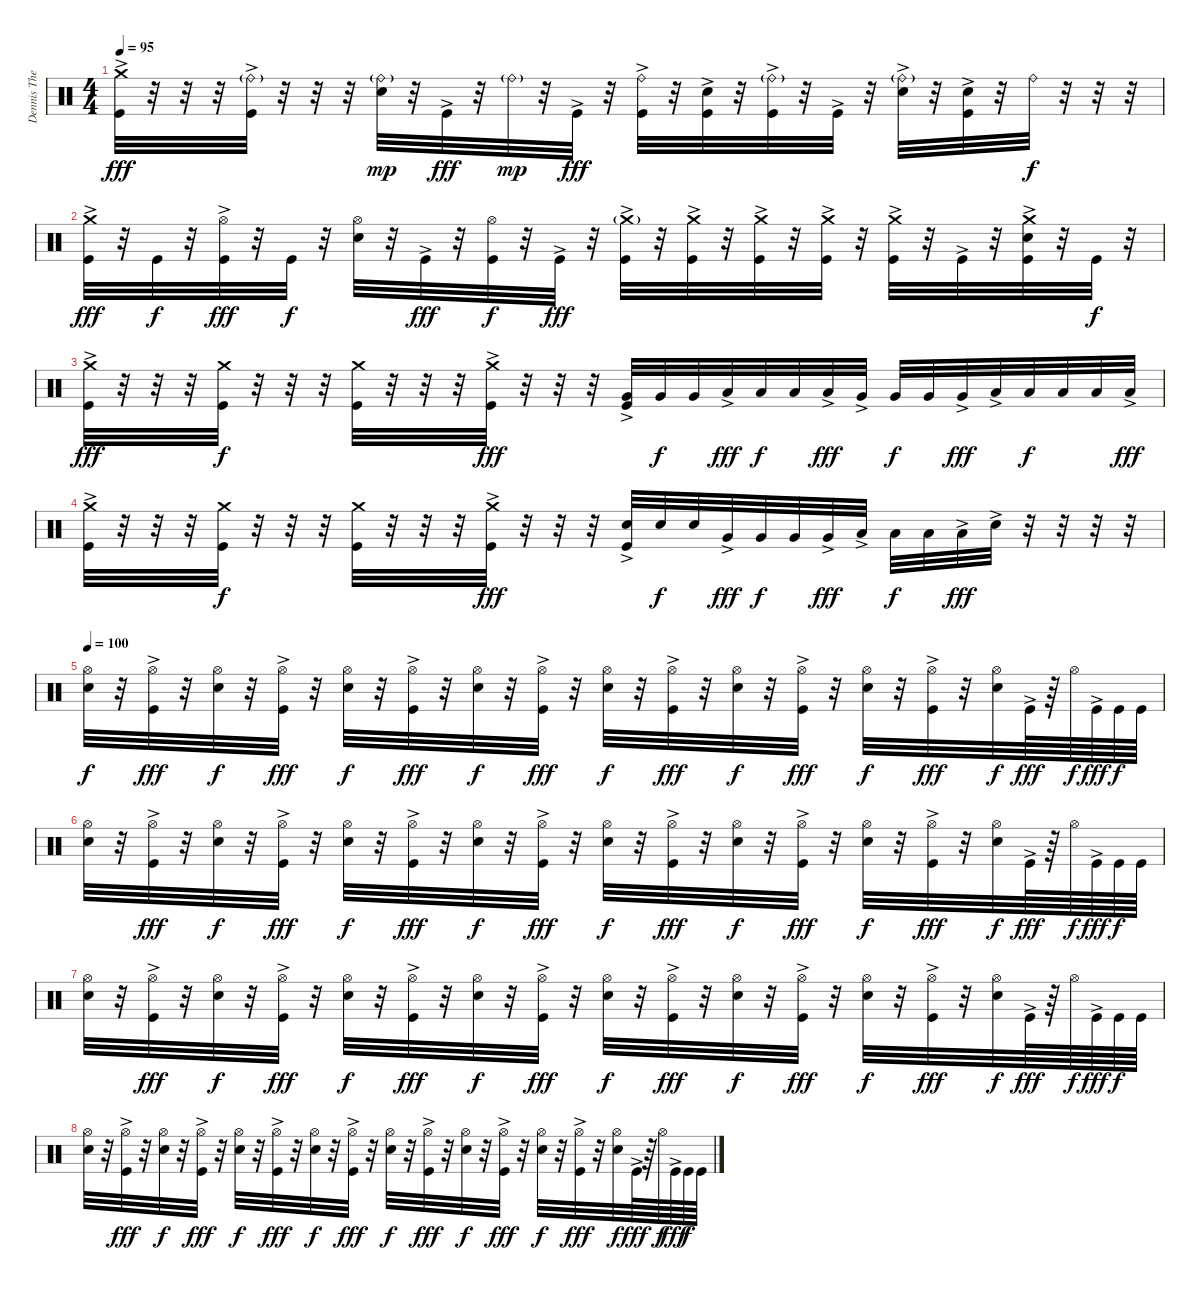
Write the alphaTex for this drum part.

\track ("Dennis The Menace" "Dennis The") {instrument percussion}
\staff {score}
\articulation defaults
\ts (4 4)
\tempo 95
\clef neutral
\ks c
("Crash medium (hit)" "Kick (hit)"{ac}).32{dy fff} r.32 r.32 r.32 ("Ride (bell)"{g} "Kick (hit)"{ac}).32 r.32 r.32 r.32 ("Ride (bell)"{g} "Electric Snare (hit)").32{dy mp} r.32 "Kick (hit)"{ac}.32{dy fff} r.32 "Ride (bell)"{g}.32{dy mp} r.32 "Kick (hit)"{ac}.32{dy fff} r.32 ("Ride (bell)" "Kick (hit)"{ac}).32 r.32 ("Electric Snare (hit)"{ac} "Kick (hit)"{ac}).32 r.32 ("Ride (bell)"{g} "Kick (hit)"{ac}).32 r.32 "Kick (hit)"{ac}.32 r.32 ("Ride (bell)"{g} "Electric Snare (hit)"{ac}).32 r.32 ("Electric Snare (hit)" "Kick (hit)"{ac}).32 r.32 "Ride (bell)".32{dy f} r.32 r.32 r.32 |
("Crash medium (hit)" "Kick (hit)"{ac}).32{dy fff} r.32 "Kick (hit)".32{dy f} r.32 ("Hi-Hat (open)" "Kick (hit)"{ac}).32{dy fff} r.32 "Kick (hit)".32{dy f} r.32 ("Hi-Hat (open)" "Electric Snare (hit)").32 r.32 "Kick (hit)"{ac}.32{dy fff} r.32 ("Hi-Hat (open)" "Kick (hit)").32{dy f} r.32 "Kick (hit)"{ac}.32{dy fff} r.32 ("Crash medium (hit)"{g} "Kick (hit)"{ac}).32 r.32 ("Crash medium (hit)" "Kick (hit)"{ac}).32 r.32 ("Crash medium (hit)" "Kick (hit)"{ac}).32 r.32 ("Crash medium (hit)"{ac} "Kick (hit)"{ac}).32 r.32 ("Crash medium (hit)"{ac} "Kick (hit)"{ac}).32 r.32 "Kick (hit)"{ac}.32 r.32 ("Crash medium (hit)" "Kick (hit)" "Electric Snare (hit)"{ac}).32 r.32 "Kick (hit)".32{dy f} r.32 |
("Crash medium (hit)"{ac} "Kick (hit)").32{dy fff} r.32 r.32 r.32 ("Crash medium (hit)" "Kick (hit)").32{dy f} r.32 r.32 r.32 ("Crash medium (hit)" "Kick (hit)").32 r.32 r.32 r.32 ("Crash medium (hit)"{ac} "Kick (hit)").32{dy fff} r.32 r.32 r.32 ("Very Low Tom (hit)"{ac} "Kick (hit)").32 "Very Low Tom (hit)".32{dy f} "Very Low Tom (hit)".32 "Low Tom (hit)"{ac}.32{dy fff} "Low Tom (hit)".32{dy f} "Low Tom (hit)".32 "Low Tom (hit)"{ac}.32{dy fff} "Very Low Tom (hit)"{ac}.32 "Very Low Tom (hit)".32{dy f} "Very Low Tom (hit)".32 "Very Low Tom (hit)"{ac}.32{dy fff} "Low Floor Tom (hit)"{ac}.32 "Low Floor Tom (hit)".32{dy f} "Low Floor Tom (hit)".32 "Low Floor Tom (hit)".32 "Low Floor Tom (hit)"{ac}.32{dy fff} |
("Crash medium (hit)"{ac} "Kick (hit)").32 r.32 r.32 r.32 ("Crash medium (hit)" "Kick (hit)").32{dy f} r.32 r.32 r.32 ("Crash medium (hit)" "Kick (hit)").32 r.32 r.32 r.32 ("Crash medium (hit)"{ac} "Kick (hit)").32{dy fff} r.32 r.32 r.32 ("Electric Snare (hit)"{ac} "Kick (hit)").32 "Electric Snare (hit)".32{dy f} "Electric Snare (hit)".32 "Very Low Tom (hit)"{ac}.32{dy fff} "Very Low Tom (hit)".32{dy f} "Very Low Tom (hit)".32 "Very Low Tom (hit)"{ac}.32{dy fff} "Low Floor Tom (hit)"{ac}.32 "Low Floor Tom (hit)".32{dy f} "Low Floor Tom (hit)".32 "Low Floor Tom (hit)"{ac}.32{dy fff} "Electric Snare (hit)"{ac}.32 r.32 r.32 r.32 r.32 |
\tempo 100
("Hi-Hat (open)" "Electric Snare (hit)").32{dy f} r.32 ("Hi-Hat (open)" "Kick (hit)"{ac}).32{dy fff} r.32 ("Hi-Hat (open)" "Electric Snare (hit)").32{dy f} r.32 ("Hi-Hat (open)" "Kick (hit)"{ac}).32{dy fff} r.32 ("Hi-Hat (open)" "Electric Snare (hit)").32{dy f} r.32 ("Hi-Hat (open)" "Kick (hit)"{ac}).32{dy fff} r.32 ("Hi-Hat (open)" "Electric Snare (hit)").32{dy f} r.32 ("Hi-Hat (open)" "Kick (hit)"{ac}).32{dy fff} r.32 ("Hi-Hat (open)" "Electric Snare (hit)").32{dy f} r.32 ("Hi-Hat (open)" "Kick (hit)"{ac}).32{dy fff} r.32 ("Hi-Hat (open)" "Electric Snare (hit)").32{dy f} r.32 ("Hi-Hat (open)" "Kick (hit)"{ac}).32{dy fff} r.32 ("Hi-Hat (open)" "Electric Snare (hit)").32{dy f} r.32 ("Hi-Hat (open)" "Kick (hit)"{ac}).32{dy fff} r.32 ("Hi-Hat (open)" "Electric Snare (hit)").32{dy f} "Kick (hit)"{ac}.64{dy fff} r.64 "Hi-Hat (open)".64{dy f} "Kick (hit)"{ac}.64{dy fff} "Kick (hit)".64{dy f} "Kick (hit)".64 |
("Hi-Hat (open)" "Electric Snare (hit)").32 r.32 ("Hi-Hat (open)" "Kick (hit)"{ac}).32{dy fff} r.32 ("Hi-Hat (open)" "Electric Snare (hit)").32{dy f} r.32 ("Hi-Hat (open)" "Kick (hit)"{ac}).32{dy fff} r.32 ("Hi-Hat (open)" "Electric Snare (hit)").32{dy f} r.32 ("Hi-Hat (open)" "Kick (hit)"{ac}).32{dy fff} r.32 ("Hi-Hat (open)" "Electric Snare (hit)").32{dy f} r.32 ("Hi-Hat (open)" "Kick (hit)"{ac}).32{dy fff} r.32 ("Hi-Hat (open)" "Electric Snare (hit)").32{dy f} r.32 ("Hi-Hat (open)" "Kick (hit)"{ac}).32{dy fff} r.32 ("Hi-Hat (open)" "Electric Snare (hit)").32{dy f} r.32 ("Hi-Hat (open)" "Kick (hit)"{ac}).32{dy fff} r.32 ("Hi-Hat (open)" "Electric Snare (hit)").32{dy f} r.32 ("Hi-Hat (open)" "Kick (hit)"{ac}).32{dy fff} r.32 ("Hi-Hat (open)" "Electric Snare (hit)").32{dy f} "Kick (hit)"{ac}.64{dy fff} r.64 "Hi-Hat (open)".64{dy f} "Kick (hit)"{ac}.64{dy fff} "Kick (hit)".64{dy f} "Kick (hit)".64 |
("Hi-Hat (open)" "Electric Snare (hit)").32 r.32 ("Hi-Hat (open)" "Kick (hit)"{ac}).32{dy fff} r.32 ("Hi-Hat (open)" "Electric Snare (hit)").32{dy f} r.32 ("Hi-Hat (open)" "Kick (hit)"{ac}).32{dy fff} r.32 ("Hi-Hat (open)" "Electric Snare (hit)").32{dy f} r.32 ("Hi-Hat (open)" "Kick (hit)"{ac}).32{dy fff} r.32 ("Hi-Hat (open)" "Electric Snare (hit)").32{dy f} r.32 ("Hi-Hat (open)" "Kick (hit)"{ac}).32{dy fff} r.32 ("Hi-Hat (open)" "Electric Snare (hit)").32{dy f} r.32 ("Hi-Hat (open)" "Kick (hit)"{ac}).32{dy fff} r.32 ("Hi-Hat (open)" "Electric Snare (hit)").32{dy f} r.32 ("Hi-Hat (open)" "Kick (hit)"{ac}).32{dy fff} r.32 ("Hi-Hat (open)" "Electric Snare (hit)").32{dy f} r.32 ("Hi-Hat (open)" "Kick (hit)"{ac}).32{dy fff} r.32 ("Hi-Hat (open)" "Electric Snare (hit)").32{dy f} "Kick (hit)"{ac}.64{dy fff} r.64 "Hi-Hat (open)".64{dy f} "Kick (hit)"{ac}.64{dy fff} "Kick (hit)".64{dy f} "Kick (hit)".64 |
("Hi-Hat (open)" "Electric Snare (hit)").32 r.32 ("Hi-Hat (open)" "Kick (hit)"{ac}).32{dy fff} r.32 ("Hi-Hat (open)" "Electric Snare (hit)").32{dy f} r.32 ("Hi-Hat (open)" "Kick (hit)"{ac}).32{dy fff} r.32 ("Hi-Hat (open)" "Electric Snare (hit)").32{dy f} r.32 ("Hi-Hat (open)" "Kick (hit)"{ac}).32{dy fff} r.32 ("Hi-Hat (open)" "Electric Snare (hit)").32{dy f} r.32 ("Hi-Hat (open)" "Kick (hit)"{ac}).32{dy fff} r.32 ("Hi-Hat (open)" "Electric Snare (hit)").32{dy f} r.32 ("Hi-Hat (open)" "Kick (hit)"{ac}).32{dy fff} r.32 ("Hi-Hat (open)" "Electric Snare (hit)").32{dy f} r.32 ("Hi-Hat (open)" "Kick (hit)"{ac}).32{dy fff} r.32 ("Hi-Hat (open)" "Electric Snare (hit)").32{dy f} r.32 ("Hi-Hat (open)" "Kick (hit)"{ac}).32{dy fff} r.32 ("Hi-Hat (open)" "Electric Snare (hit)").32{dy f} "Kick (hit)"{ac}.64{dy fff} r.64 "Hi-Hat (open)".64{dy f} "Kick (hit)"{ac}.64{dy fff} "Kick (hit)".64{dy f} "Kick (hit)".64
